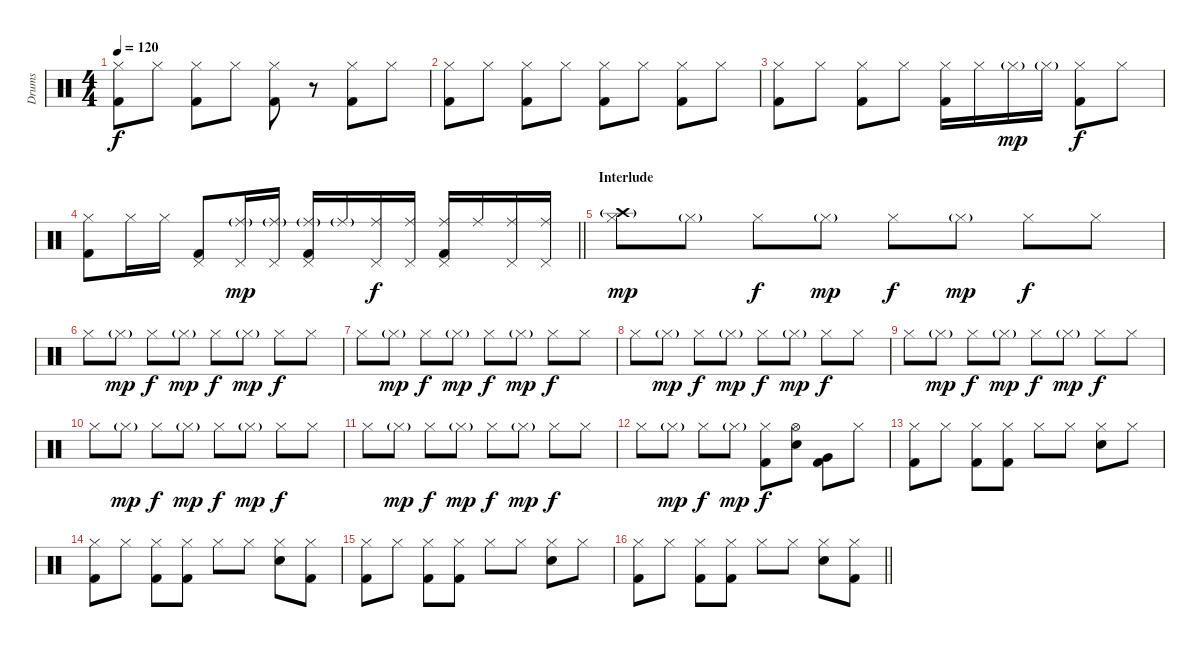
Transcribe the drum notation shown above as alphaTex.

\track ("Drums" "Drums") {instrument percussion}
\staff {score}
\articulation defaults
\ts (4 4)
\tempo 120
\clef neutral
\ks c
("Hi-Hat (closed)" "Kick (hit) 2").8{dy f} "Hi-Hat (closed)".8 ("Hi-Hat (closed)" "Kick (hit) 2").8 "Hi-Hat (closed)".8 ("Hi-Hat (closed)" "Kick (hit) 2").8 r.8 ("Hi-Hat (closed)" "Kick (hit) 2").8 "Hi-Hat (closed)".8 |
("Hi-Hat (closed)" "Kick (hit) 2").8 "Hi-Hat (closed)".8 ("Hi-Hat (closed)" "Kick (hit) 2").8 "Hi-Hat (closed)".8 ("Hi-Hat (closed)" "Kick (hit) 2").8 "Hi-Hat (closed)".8 ("Hi-Hat (closed)" "Kick (hit) 2").8 "Hi-Hat (closed)".8 |
("Hi-Hat (closed)" "Kick (hit) 2").8 "Hi-Hat (closed)".8 ("Hi-Hat (closed)" "Kick (hit) 2").8 "Hi-Hat (closed)".8 ("Hi-Hat (closed)" "Kick (hit) 2").16 "Hi-Hat (closed)".16 "Hi-Hat (closed)"{g}.16{dy mp} "Hi-Hat (closed)"{g}.16 ("Hi-Hat (closed)" "Kick (hit) 2").8{dy f} "Hi-Hat (closed)".8 |
\barLineRight lightlight
("Hi-Hat (closed)" "Kick (hit) 2").8 "Hi-Hat (closed)".16 "Hi-Hat (closed)".16 ("Pedal Hi-Hat (hit)" "Kick (hit) 2").8 ("Ride (middle)"{g} "Pedal Hi-Hat (hit)").16{dy mp} ("Ride (middle)"{g} "Pedal Hi-Hat (hit)").16 ("Ride (middle)"{g} "Pedal Hi-Hat (hit)" "Kick (hit) 2").16 "Ride (middle)"{g}.16 ("Ride (middle)" "Pedal Hi-Hat (hit)").16{dy f} ("Ride (middle)" "Pedal Hi-Hat (hit)").16 ("Ride (middle)" "Pedal Hi-Hat (hit)" "Kick (hit) 2").16 "Ride (middle)".16 ("Ride (middle)" "Pedal Hi-Hat (hit)").16 ("Ride (middle)" "Pedal Hi-Hat (hit)").16 |
\section ("" "Interlude")
("Crash high (hit)"{g} "Hi-Hat (closed)").8{dy mp} "Hi-Hat (closed)"{g}.8 "Hi-Hat (closed)".8{dy f} "Hi-Hat (closed)"{g}.8{dy mp} "Hi-Hat (closed)".8{dy f} "Hi-Hat (closed)"{g}.8{dy mp} "Hi-Hat (closed)".8{dy f} "Hi-Hat (closed)".8 |
"Hi-Hat (closed)".8 "Hi-Hat (closed)"{g}.8{dy mp} "Hi-Hat (closed)".8{dy f} "Hi-Hat (closed)"{g}.8{dy mp} "Hi-Hat (closed)".8{dy f} "Hi-Hat (closed)"{g}.8{dy mp} "Hi-Hat (closed)".8{dy f} "Hi-Hat (closed)".8 |
"Hi-Hat (closed)".8 "Hi-Hat (closed)"{g}.8{dy mp} "Hi-Hat (closed)".8{dy f} "Hi-Hat (closed)"{g}.8{dy mp} "Hi-Hat (closed)".8{dy f} "Hi-Hat (closed)"{g}.8{dy mp} "Hi-Hat (closed)".8{dy f} "Hi-Hat (closed)".8 |
"Hi-Hat (closed)".8 "Hi-Hat (closed)"{g}.8{dy mp} "Hi-Hat (closed)".8{dy f} "Hi-Hat (closed)"{g}.8{dy mp} "Hi-Hat (closed)".8{dy f} "Hi-Hat (closed)"{g}.8{dy mp} "Hi-Hat (closed)".8{dy f} "Hi-Hat (closed)".8 |
"Hi-Hat (closed)".8 "Hi-Hat (closed)"{g}.8{dy mp} "Hi-Hat (closed)".8{dy f} "Hi-Hat (closed)"{g}.8{dy mp} "Hi-Hat (closed)".8{dy f} "Hi-Hat (closed)"{g}.8{dy mp} "Hi-Hat (closed)".8{dy f} "Hi-Hat (closed)".8 |
"Hi-Hat (closed)".8 "Hi-Hat (closed)"{g}.8{dy mp} "Hi-Hat (closed)".8{dy f} "Hi-Hat (closed)"{g}.8{dy mp} "Hi-Hat (closed)".8{dy f} "Hi-Hat (closed)"{g}.8{dy mp} "Hi-Hat (closed)".8{dy f} "Hi-Hat (closed)".8 |
"Hi-Hat (closed)".8 "Hi-Hat (closed)"{g}.8{dy mp} "Hi-Hat (closed)".8{dy f} "Hi-Hat (closed)"{g}.8{dy mp} "Hi-Hat (closed)".8{dy f} "Hi-Hat (closed)"{g}.8{dy mp} "Hi-Hat (closed)".8{dy f} "Hi-Hat (closed)".8 |
"Hi-Hat (closed)".8 "Hi-Hat (closed)"{g}.8{dy mp} "Hi-Hat (closed)".8{dy f} "Hi-Hat (closed)"{g}.8{dy mp} ("Hi-Hat (closed)" "Kick (hit) 2").8{dy f} ("Hi-Hat (open)" "Electric Snare (hit)").8 ("Very Low Tom (hit)" "Kick (hit) 2").8 "Hi-Hat (closed)".8 |
("Hi-Hat (closed)" "Kick (hit) 2").8 "Hi-Hat (closed)".8 ("Hi-Hat (closed)" "Kick (hit) 2").8 ("Hi-Hat (closed)" "Kick (hit) 2").8 "Hi-Hat (closed)".8 "Hi-Hat (closed)".8 ("Hi-Hat (closed)" "Electric Snare (hit)").8 "Hi-Hat (closed)".8 |
("Hi-Hat (closed)" "Kick (hit) 2").8 "Hi-Hat (closed)".8 ("Hi-Hat (closed)" "Kick (hit) 2").8 ("Hi-Hat (closed)" "Kick (hit) 2").8 "Hi-Hat (closed)".8 "Hi-Hat (closed)".8 ("Hi-Hat (closed)" "Electric Snare (hit)").8 ("Hi-Hat (closed)" "Kick (hit) 2").8 |
("Hi-Hat (closed)" "Kick (hit) 2").8 "Hi-Hat (closed)".8 ("Hi-Hat (closed)" "Kick (hit) 2").8 ("Hi-Hat (closed)" "Kick (hit) 2").8 "Hi-Hat (closed)".8 "Hi-Hat (closed)".8 ("Hi-Hat (closed)" "Electric Snare (hit)").8 "Hi-Hat (closed)".8 |
\barLineRight lightlight
("Hi-Hat (closed)" "Kick (hit) 2").8 "Hi-Hat (closed)".8 ("Hi-Hat (closed)" "Kick (hit) 2").8 ("Hi-Hat (closed)" "Kick (hit) 2").8 "Hi-Hat (closed)".8 "Hi-Hat (closed)".8 ("Hi-Hat (closed)" "Electric Snare (hit)").8 ("Hi-Hat (closed)" "Kick (hit) 2").8
